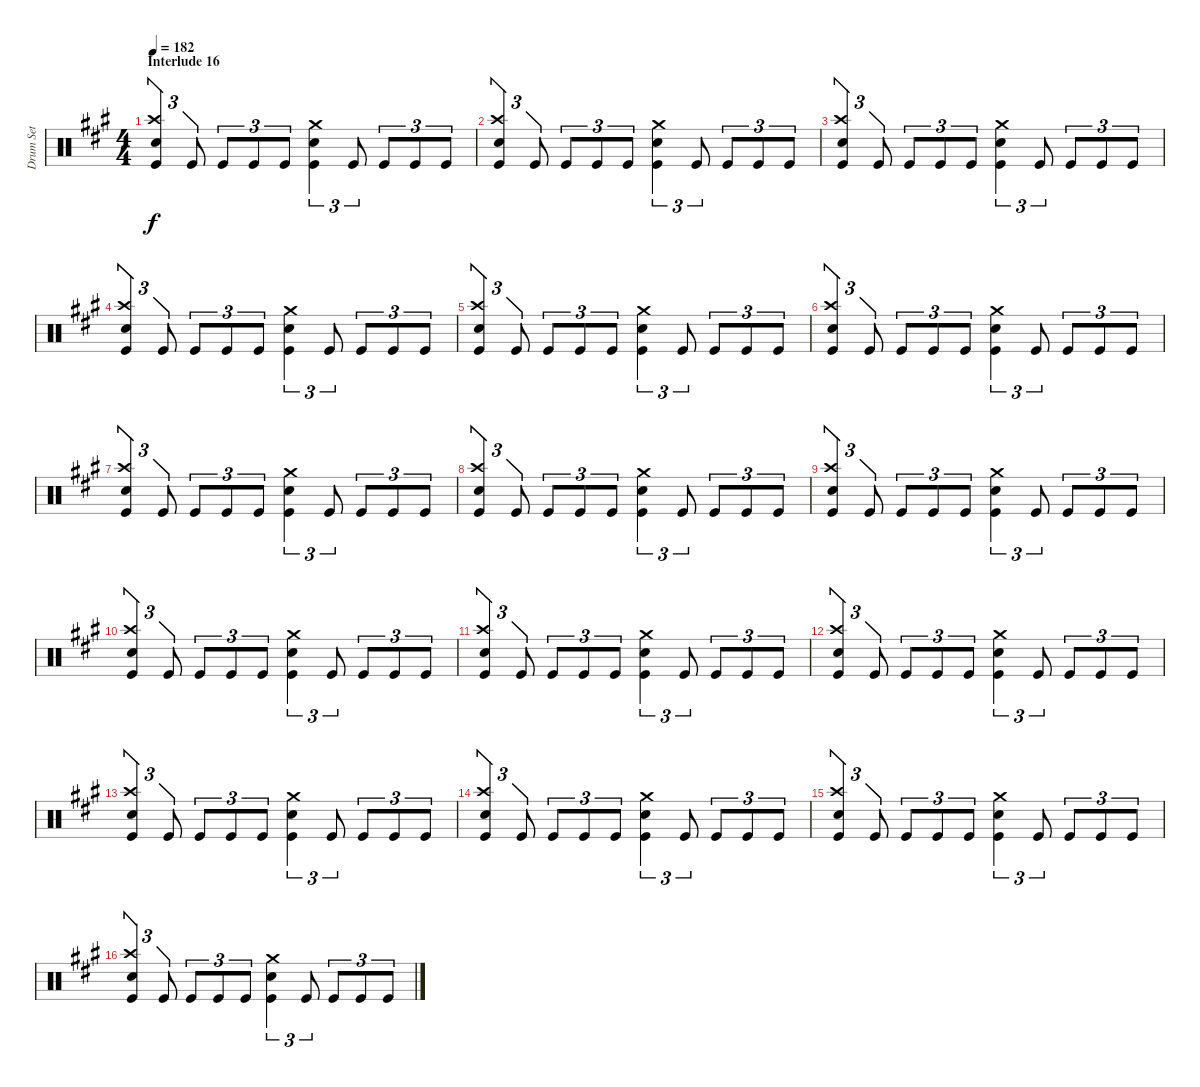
\track ("Drum Set" "Drum Set") {instrument percussion}
\staff {score}
\articulation defaults
\ts (4 4)
\section ("" "Interlude 16")
\tempo 182
\clef neutral
\ks a
("Electric Snare (hit)" "Crash high (hit)" "Kick (hit)").4{tu (3 2) dy f} "Kick (hit)".8{tu (3 2)} "Kick (hit)".8{tu (3 2)} "Kick (hit)".8{tu (3 2)} "Kick (hit)".8{tu (3 2)} ("Electric Snare (hit)" "Crash medium (hit)" "Kick (hit)").4{tu (3 2)} "Kick (hit)".8{tu (3 2)} "Kick (hit)".8{tu (3 2)} "Kick (hit)".8{tu (3 2)} "Kick (hit)".8{tu (3 2)} |
("Electric Snare (hit)" "Crash high (hit)" "Kick (hit)").4{tu (3 2)} "Kick (hit)".8{tu (3 2)} "Kick (hit)".8{tu (3 2)} "Kick (hit)".8{tu (3 2)} "Kick (hit)".8{tu (3 2)} ("Electric Snare (hit)" "Crash medium (hit)" "Kick (hit)").4{tu (3 2)} "Kick (hit)".8{tu (3 2)} "Kick (hit)".8{tu (3 2)} "Kick (hit)".8{tu (3 2)} "Kick (hit)".8{tu (3 2)} |
("Electric Snare (hit)" "Crash high (hit)" "Kick (hit)").4{tu (3 2)} "Kick (hit)".8{tu (3 2)} "Kick (hit)".8{tu (3 2)} "Kick (hit)".8{tu (3 2)} "Kick (hit)".8{tu (3 2)} ("Electric Snare (hit)" "Crash medium (hit)" "Kick (hit)").4{tu (3 2)} "Kick (hit)".8{tu (3 2)} "Kick (hit)".8{tu (3 2)} "Kick (hit)".8{tu (3 2)} "Kick (hit)".8{tu (3 2)} |
("Electric Snare (hit)" "Crash high (hit)" "Kick (hit)").4{tu (3 2)} "Kick (hit)".8{tu (3 2)} "Kick (hit)".8{tu (3 2)} "Kick (hit)".8{tu (3 2)} "Kick (hit)".8{tu (3 2)} ("Electric Snare (hit)" "Crash medium (hit)" "Kick (hit)").4{tu (3 2)} "Kick (hit)".8{tu (3 2)} "Kick (hit)".8{tu (3 2)} "Kick (hit)".8{tu (3 2)} "Kick (hit)".8{tu (3 2)} |
("Electric Snare (hit)" "Crash high (hit)" "Kick (hit)").4{tu (3 2)} "Kick (hit)".8{tu (3 2)} "Kick (hit)".8{tu (3 2)} "Kick (hit)".8{tu (3 2)} "Kick (hit)".8{tu (3 2)} ("Electric Snare (hit)" "Crash medium (hit)" "Kick (hit)").4{tu (3 2)} "Kick (hit)".8{tu (3 2)} "Kick (hit)".8{tu (3 2)} "Kick (hit)".8{tu (3 2)} "Kick (hit)".8{tu (3 2)} |
("Electric Snare (hit)" "Crash high (hit)" "Kick (hit)").4{tu (3 2)} "Kick (hit)".8{tu (3 2)} "Kick (hit)".8{tu (3 2)} "Kick (hit)".8{tu (3 2)} "Kick (hit)".8{tu (3 2)} ("Electric Snare (hit)" "Crash medium (hit)" "Kick (hit)").4{tu (3 2)} "Kick (hit)".8{tu (3 2)} "Kick (hit)".8{tu (3 2)} "Kick (hit)".8{tu (3 2)} "Kick (hit)".8{tu (3 2)} |
("Electric Snare (hit)" "Crash high (hit)" "Kick (hit)").4{tu (3 2)} "Kick (hit)".8{tu (3 2)} "Kick (hit)".8{tu (3 2)} "Kick (hit)".8{tu (3 2)} "Kick (hit)".8{tu (3 2)} ("Electric Snare (hit)" "Crash medium (hit)" "Kick (hit)").4{tu (3 2)} "Kick (hit)".8{tu (3 2)} "Kick (hit)".8{tu (3 2)} "Kick (hit)".8{tu (3 2)} "Kick (hit)".8{tu (3 2)} |
("Electric Snare (hit)" "Crash high (hit)" "Kick (hit)").4{tu (3 2)} "Kick (hit)".8{tu (3 2)} "Kick (hit)".8{tu (3 2)} "Kick (hit)".8{tu (3 2)} "Kick (hit)".8{tu (3 2)} ("Electric Snare (hit)" "Crash medium (hit)" "Kick (hit)").4{tu (3 2)} "Kick (hit)".8{tu (3 2)} "Kick (hit)".8{tu (3 2)} "Kick (hit)".8{tu (3 2)} "Kick (hit)".8{tu (3 2)} |
("Electric Snare (hit)" "Crash high (hit)" "Kick (hit)").4{tu (3 2)} "Kick (hit)".8{tu (3 2)} "Kick (hit)".8{tu (3 2)} "Kick (hit)".8{tu (3 2)} "Kick (hit)".8{tu (3 2)} ("Electric Snare (hit)" "Crash medium (hit)" "Kick (hit)").4{tu (3 2)} "Kick (hit)".8{tu (3 2)} "Kick (hit)".8{tu (3 2)} "Kick (hit)".8{tu (3 2)} "Kick (hit)".8{tu (3 2)} |
("Electric Snare (hit)" "Crash high (hit)" "Kick (hit)").4{tu (3 2)} "Kick (hit)".8{tu (3 2)} "Kick (hit)".8{tu (3 2)} "Kick (hit)".8{tu (3 2)} "Kick (hit)".8{tu (3 2)} ("Electric Snare (hit)" "Crash medium (hit)" "Kick (hit)").4{tu (3 2)} "Kick (hit)".8{tu (3 2)} "Kick (hit)".8{tu (3 2)} "Kick (hit)".8{tu (3 2)} "Kick (hit)".8{tu (3 2)} |
("Electric Snare (hit)" "Crash high (hit)" "Kick (hit)").4{tu (3 2)} "Kick (hit)".8{tu (3 2)} "Kick (hit)".8{tu (3 2)} "Kick (hit)".8{tu (3 2)} "Kick (hit)".8{tu (3 2)} ("Electric Snare (hit)" "Crash medium (hit)" "Kick (hit)").4{tu (3 2)} "Kick (hit)".8{tu (3 2)} "Kick (hit)".8{tu (3 2)} "Kick (hit)".8{tu (3 2)} "Kick (hit)".8{tu (3 2)} |
("Electric Snare (hit)" "Crash high (hit)" "Kick (hit)").4{tu (3 2)} "Kick (hit)".8{tu (3 2)} "Kick (hit)".8{tu (3 2)} "Kick (hit)".8{tu (3 2)} "Kick (hit)".8{tu (3 2)} ("Electric Snare (hit)" "Crash medium (hit)" "Kick (hit)").4{tu (3 2)} "Kick (hit)".8{tu (3 2)} "Kick (hit)".8{tu (3 2)} "Kick (hit)".8{tu (3 2)} "Kick (hit)".8{tu (3 2)} |
("Electric Snare (hit)" "Crash high (hit)" "Kick (hit)").4{tu (3 2)} "Kick (hit)".8{tu (3 2)} "Kick (hit)".8{tu (3 2)} "Kick (hit)".8{tu (3 2)} "Kick (hit)".8{tu (3 2)} ("Electric Snare (hit)" "Crash medium (hit)" "Kick (hit)").4{tu (3 2)} "Kick (hit)".8{tu (3 2)} "Kick (hit)".8{tu (3 2)} "Kick (hit)".8{tu (3 2)} "Kick (hit)".8{tu (3 2)} |
("Electric Snare (hit)" "Crash high (hit)" "Kick (hit)").4{tu (3 2)} "Kick (hit)".8{tu (3 2)} "Kick (hit)".8{tu (3 2)} "Kick (hit)".8{tu (3 2)} "Kick (hit)".8{tu (3 2)} ("Electric Snare (hit)" "Crash medium (hit)" "Kick (hit)").4{tu (3 2)} "Kick (hit)".8{tu (3 2)} "Kick (hit)".8{tu (3 2)} "Kick (hit)".8{tu (3 2)} "Kick (hit)".8{tu (3 2)} |
("Electric Snare (hit)" "Crash high (hit)" "Kick (hit)").4{tu (3 2)} "Kick (hit)".8{tu (3 2)} "Kick (hit)".8{tu (3 2)} "Kick (hit)".8{tu (3 2)} "Kick (hit)".8{tu (3 2)} ("Electric Snare (hit)" "Crash medium (hit)" "Kick (hit)").4{tu (3 2)} "Kick (hit)".8{tu (3 2)} "Kick (hit)".8{tu (3 2)} "Kick (hit)".8{tu (3 2)} "Kick (hit)".8{tu (3 2)} |
("Electric Snare (hit)" "Crash high (hit)" "Kick (hit)").4{tu (3 2)} "Kick (hit)".8{tu (3 2)} "Kick (hit)".8{tu (3 2)} "Kick (hit)".8{tu (3 2)} "Kick (hit)".8{tu (3 2)} ("Electric Snare (hit)" "Crash medium (hit)" "Kick (hit)").4{tu (3 2)} "Kick (hit)".8{tu (3 2)} "Kick (hit)".8{tu (3 2)} "Kick (hit)".8{tu (3 2)} "Kick (hit)".8{tu (3 2)}
